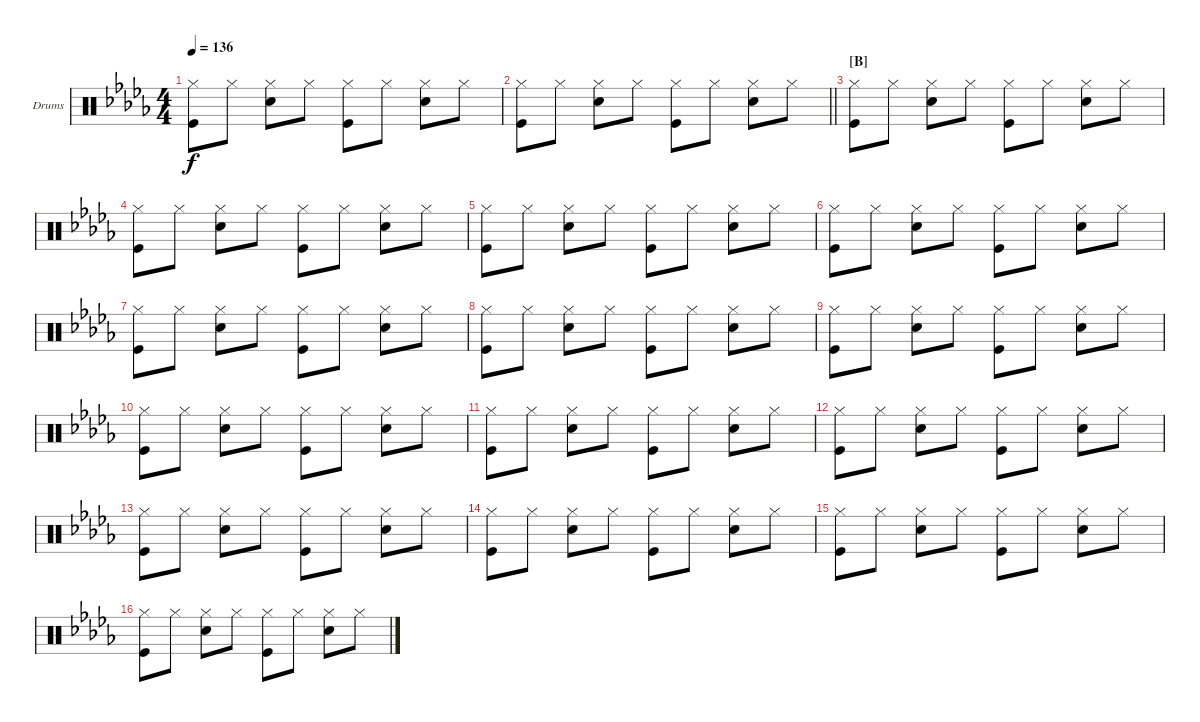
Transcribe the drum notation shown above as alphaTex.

\bracketExtendMode groupsimilarinstruments
\firstSystemTrackNameOrientation horizontal
\otherSystemsTrackNameOrientation horizontal
\track ("Fabrizio Moretti" "Drums") {instrument percussion}
\staff {score}
\articulation defaults
\ts (4 4)
\tempo 136
\clef neutral
\ks db
("Hi-Hat (closed)" "Kick (hit)").8{dy f} "Hi-Hat (closed)".8 ("Hi-Hat (closed)" "Snare (hit) 2").8 "Hi-Hat (closed)".8 ("Hi-Hat (closed)" "Kick (hit)").8 "Hi-Hat (closed)".8 ("Hi-Hat (closed)" "Snare (hit) 2").8 "Hi-Hat (closed)".8 |
\barLineRight lightlight
("Hi-Hat (closed)" "Kick (hit)").8 "Hi-Hat (closed)".8 ("Hi-Hat (closed)" "Snare (hit) 2").8 "Hi-Hat (closed)".8 ("Hi-Hat (closed)" "Kick (hit)").8 "Hi-Hat (closed)".8 ("Hi-Hat (closed)" "Snare (hit) 2").8 "Hi-Hat (closed)".8 |
\section ("B" "")
("Hi-Hat (closed)" "Kick (hit)").8 "Hi-Hat (closed)".8 ("Hi-Hat (closed)" "Snare (hit) 2").8 "Hi-Hat (closed)".8 ("Hi-Hat (closed)" "Kick (hit)").8 "Hi-Hat (closed)".8 ("Hi-Hat (closed)" "Snare (hit) 2").8 "Hi-Hat (closed)".8 |
("Hi-Hat (closed)" "Kick (hit)").8 "Hi-Hat (closed)".8 ("Hi-Hat (closed)" "Snare (hit) 2").8 "Hi-Hat (closed)".8 ("Hi-Hat (closed)" "Kick (hit)").8 "Hi-Hat (closed)".8 ("Hi-Hat (closed)" "Snare (hit) 2").8 "Hi-Hat (closed)".8 |
("Hi-Hat (closed)" "Kick (hit)").8 "Hi-Hat (closed)".8 ("Hi-Hat (closed)" "Snare (hit) 2").8 "Hi-Hat (closed)".8 ("Hi-Hat (closed)" "Kick (hit)").8 "Hi-Hat (closed)".8 ("Hi-Hat (closed)" "Snare (hit) 2").8 "Hi-Hat (closed)".8 |
("Hi-Hat (closed)" "Kick (hit)").8 "Hi-Hat (closed)".8 ("Hi-Hat (closed)" "Snare (hit) 2").8 "Hi-Hat (closed)".8 ("Hi-Hat (closed)" "Kick (hit)").8 "Hi-Hat (closed)".8 ("Hi-Hat (closed)" "Snare (hit) 2").8 "Hi-Hat (closed)".8 |
("Hi-Hat (closed)" "Kick (hit)").8 "Hi-Hat (closed)".8 ("Hi-Hat (closed)" "Snare (hit) 2").8 "Hi-Hat (closed)".8 ("Hi-Hat (closed)" "Kick (hit)").8 "Hi-Hat (closed)".8 ("Hi-Hat (closed)" "Snare (hit) 2").8 "Hi-Hat (closed)".8 |
("Hi-Hat (closed)" "Kick (hit)").8 "Hi-Hat (closed)".8 ("Hi-Hat (closed)" "Snare (hit) 2").8 "Hi-Hat (closed)".8 ("Hi-Hat (closed)" "Kick (hit)").8 "Hi-Hat (closed)".8 ("Hi-Hat (closed)" "Snare (hit) 2").8 "Hi-Hat (closed)".8 |
("Hi-Hat (closed)" "Kick (hit)").8 "Hi-Hat (closed)".8 ("Hi-Hat (closed)" "Snare (hit) 2").8 "Hi-Hat (closed)".8 ("Hi-Hat (closed)" "Kick (hit)").8 "Hi-Hat (closed)".8 ("Hi-Hat (closed)" "Snare (hit) 2").8 "Hi-Hat (closed)".8 |
("Hi-Hat (closed)" "Kick (hit)").8 "Hi-Hat (closed)".8 ("Hi-Hat (closed)" "Snare (hit) 2").8 "Hi-Hat (closed)".8 ("Hi-Hat (closed)" "Kick (hit)").8 "Hi-Hat (closed)".8 ("Hi-Hat (closed)" "Snare (hit) 2").8 "Hi-Hat (closed)".8 |
("Hi-Hat (closed)" "Kick (hit)").8 "Hi-Hat (closed)".8 ("Hi-Hat (closed)" "Snare (hit) 2").8 "Hi-Hat (closed)".8 ("Hi-Hat (closed)" "Kick (hit)").8 "Hi-Hat (closed)".8 ("Hi-Hat (closed)" "Snare (hit) 2").8 "Hi-Hat (closed)".8 |
("Hi-Hat (closed)" "Kick (hit)").8 "Hi-Hat (closed)".8 ("Hi-Hat (closed)" "Snare (hit) 2").8 "Hi-Hat (closed)".8 ("Hi-Hat (closed)" "Kick (hit)").8 "Hi-Hat (closed)".8 ("Hi-Hat (closed)" "Snare (hit) 2").8 "Hi-Hat (closed)".8 |
("Hi-Hat (closed)" "Kick (hit)").8 "Hi-Hat (closed)".8 ("Hi-Hat (closed)" "Snare (hit) 2").8 "Hi-Hat (closed)".8 ("Hi-Hat (closed)" "Kick (hit)").8 "Hi-Hat (closed)".8 ("Hi-Hat (closed)" "Snare (hit) 2").8 "Hi-Hat (closed)".8 |
("Hi-Hat (closed)" "Kick (hit)").8 "Hi-Hat (closed)".8 ("Hi-Hat (closed)" "Snare (hit) 2").8 "Hi-Hat (closed)".8 ("Hi-Hat (closed)" "Kick (hit)").8 "Hi-Hat (closed)".8 ("Hi-Hat (closed)" "Snare (hit) 2").8 "Hi-Hat (closed)".8 |
("Hi-Hat (closed)" "Kick (hit)").8 "Hi-Hat (closed)".8 ("Hi-Hat (closed)" "Snare (hit) 2").8 "Hi-Hat (closed)".8 ("Hi-Hat (closed)" "Kick (hit)").8 "Hi-Hat (closed)".8 ("Hi-Hat (closed)" "Snare (hit) 2").8 "Hi-Hat (closed)".8 |
("Hi-Hat (closed)" "Kick (hit)").8 "Hi-Hat (closed)".8 ("Hi-Hat (closed)" "Snare (hit) 2").8 "Hi-Hat (closed)".8 ("Hi-Hat (closed)" "Kick (hit)").8 "Hi-Hat (closed)".8 ("Hi-Hat (closed)" "Snare (hit) 2").8 "Hi-Hat (closed)".8
